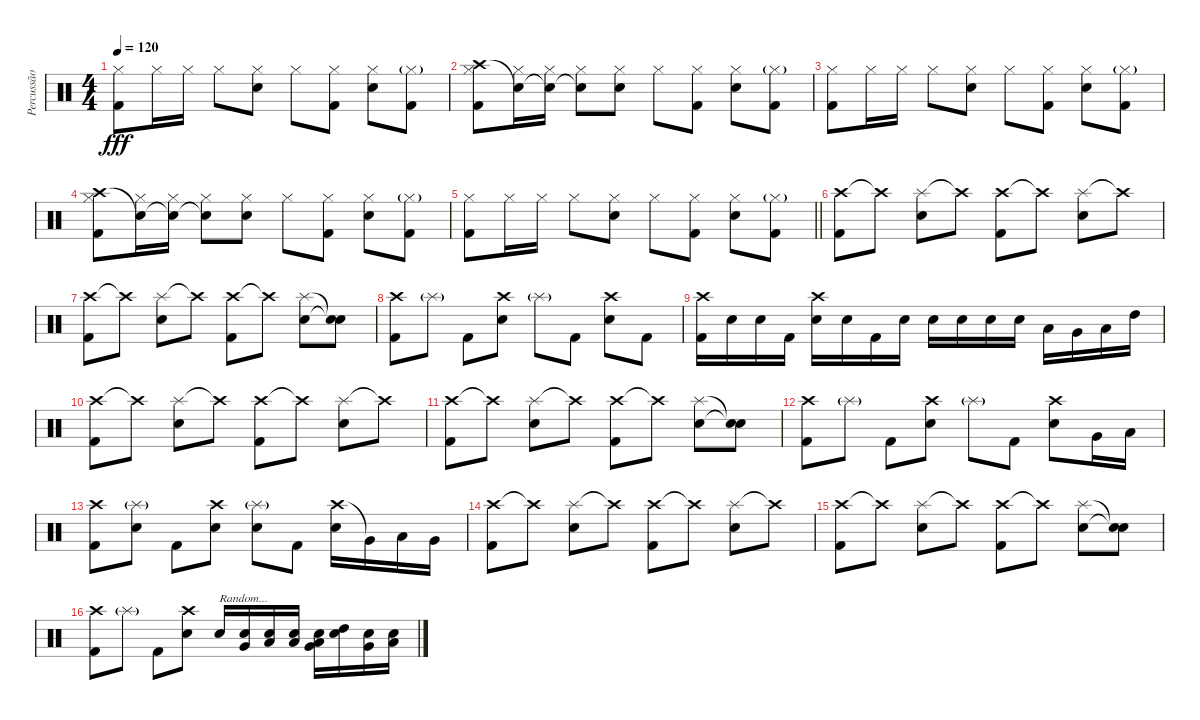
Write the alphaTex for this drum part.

\track ("Percussão" "Percussão") {instrument percussion}
\staff {score}
\articulation defaults
\ts (4 4)
\tempo 120
\clef neutral
\ks c
("Hi-Hat (closed)" "Kick (hit) 2").8{dy fff} "Hi-Hat (closed)".16 "Hi-Hat (closed)".16 "Hi-Hat (closed)".8 ("Hi-Hat (closed)" "Electric Snare (hit)").8 "Hi-Hat (closed)".8 ("Hi-Hat (closed)" "Kick (hit) 2").8 ("Hi-Hat (closed)" "Electric Snare (hit)").8 ("Hi-Hat (closed)"{g} "Kick (hit) 2").8 |
("Hi-Hat (closed)" "Crash high (hit)" "Kick (hit) 2").8 ("Hi-Hat (closed)" "Snare (hit)"{t}).16 ("Hi-Hat (closed)" "Snare (hit)"{t}).16 ("Hi-Hat (closed)" "Snare (hit)"{t}).8 ("Hi-Hat (closed)" "Electric Snare (hit)").8 "Hi-Hat (closed)".8 ("Hi-Hat (closed)" "Kick (hit) 2").8 ("Hi-Hat (closed)" "Electric Snare (hit)").8 ("Hi-Hat (closed)"{g} "Kick (hit) 2").8 |
("Hi-Hat (closed)" "Kick (hit) 2").8 "Hi-Hat (closed)".16 "Hi-Hat (closed)".16 "Hi-Hat (closed)".8 ("Hi-Hat (closed)" "Electric Snare (hit)").8 "Hi-Hat (closed)".8 ("Hi-Hat (closed)" "Kick (hit) 2").8 ("Hi-Hat (closed)" "Electric Snare (hit)").8 ("Hi-Hat (closed)"{g} "Kick (hit) 2").8 |
("Hi-Hat (closed)" "Crash high (hit)" "Kick (hit) 2").8 ("Hi-Hat (closed)" "Snare (hit)"{t}).16 ("Hi-Hat (closed)" "Snare (hit)"{t}).16 ("Hi-Hat (closed)" "Snare (hit)"{t}).8 ("Hi-Hat (closed)" "Electric Snare (hit)").8 "Hi-Hat (closed)".8 ("Hi-Hat (closed)" "Kick (hit) 2").8 ("Hi-Hat (closed)" "Electric Snare (hit)").8 ("Hi-Hat (closed)"{g} "Kick (hit) 2").8 |
\barLineRight lightlight
("Hi-Hat (closed)" "Kick (hit) 2").8 "Hi-Hat (closed)".16 "Hi-Hat (closed)".16 "Hi-Hat (closed)".8 ("Hi-Hat (closed)" "Electric Snare (hit)").8 "Hi-Hat (closed)".8 ("Hi-Hat (closed)" "Kick (hit) 2").8 ("Hi-Hat (closed)" "Electric Snare (hit)").8 ("Hi-Hat (closed)"{g} "Kick (hit) 2").8 |
("Crash high (hit)" "Kick (hit) 2").8 "Crash high (hit)"{t}.8 ("Splash (hit)" "Electric Snare (hit)").8 "Crash high (hit)"{t}.8 ("Crash high (hit)" "Kick (hit) 2").8 "Crash high (hit)"{t}.8 ("Splash (hit)" "Electric Snare (hit)").8 "Crash high (hit)"{t}.8 |
("Crash high (hit)" "Kick (hit) 2").8 "Crash high (hit)"{t}.8 ("Splash (hit)" "Electric Snare (hit)").8 "Crash high (hit)"{t}.8 ("Crash high (hit)" "Kick (hit) 2").8 "Crash high (hit)"{t}.8 ("Splash (hit)" "Electric Snare (hit)").8 ("Snare (hit)"{t} "Snare (hit)"{t}).8 |
("Crash high (hit)" "Kick (hit) 2").8 "Splash (hit)"{g}.8 "Kick (hit) 2".8 ("Crash high (hit)" "Electric Snare (hit)").8 "Splash (hit)"{g}.8 "Kick (hit) 2".8 ("Crash high (hit)" "Electric Snare (hit)").8 "Kick (hit) 2".8 |
("Crash high (hit)" "Kick (hit) 2").16 "Electric Snare (hit)".16 "Electric Snare (hit)".16 "Kick (hit) 2".16 ("Crash high (hit)" "Electric Snare (hit)").16 "Electric Snare (hit)".16 "Kick (hit) 2".16 "Electric Snare (hit)".16 "Electric Snare (hit)".16 "Electric Snare (hit)".16 "Electric Snare (hit)".16 "Electric Snare (hit)".16 "Low Tom (hit)".16 "Very Low Tom (hit)".16 "Low Floor Tom (hit)".16 "High Tom (hit)".16 |
("Crash high (hit)" "Kick (hit) 2").8 "Crash high (hit)"{t}.8 ("Splash (hit)" "Electric Snare (hit)").8 "Crash high (hit)"{t}.8 ("Crash high (hit)" "Kick (hit) 2").8 "Crash high (hit)"{t}.8 ("Splash (hit)" "Electric Snare (hit)").8 "Crash high (hit)"{t}.8 |
("Crash high (hit)" "Kick (hit) 2").8 "Crash high (hit)"{t}.8 ("Splash (hit)" "Electric Snare (hit)").8 "Crash high (hit)"{t}.8 ("Crash high (hit)" "Kick (hit) 2").8 "Crash high (hit)"{t}.8 ("Splash (hit)" "Electric Snare (hit)").8 ("Snare (hit)"{t} "Snare (hit)"{t}).8 |
("Crash high (hit)" "Kick (hit) 2").8 "Splash (hit)"{g}.8 "Kick (hit) 2".8 ("Crash high (hit)" "Electric Snare (hit)").8 "Splash (hit)"{g}.8 "Kick (hit) 2".8 ("Crash high (hit)" "Electric Snare (hit)").8 "Very Low Tom (hit)".16 "Low Floor Tom (hit)".16 |
("Crash high (hit)" "Kick (hit) 2").8 ("Splash (hit)"{g} "Electric Snare (hit)").8 "Kick (hit) 2".8 ("Crash high (hit)" "Electric Snare (hit)").8 ("Splash (hit)"{g} "Electric Snare (hit)").8 "Kick (hit) 2".8 ("Crash high (hit)" "Electric Snare (hit)").16 "Very Low Tom (hit)"{t}.16 "Low Floor Tom (hit)".16 "Very Low Tom (hit)".16 |
("Crash high (hit)" "Kick (hit) 2").8 "Crash high (hit)"{t}.8 ("Splash (hit)" "Electric Snare (hit)").8 "Crash high (hit)"{t}.8 ("Crash high (hit)" "Kick (hit) 2").8 "Crash high (hit)"{t}.8 ("Splash (hit)" "Electric Snare (hit)").8 "Crash high (hit)"{t}.8 |
("Crash high (hit)" "Kick (hit) 2").8 "Crash high (hit)"{t}.8 ("Splash (hit)" "Electric Snare (hit)").8 "Crash high (hit)"{t}.8 ("Crash high (hit)" "Kick (hit) 2").8 "Crash high (hit)"{t}.8 ("Splash (hit)" "Electric Snare (hit)").8 ("Snare (hit)"{t} "Snare (hit)"{t}).8 |
("Crash high (hit)" "Kick (hit) 2").8 "Splash (hit)"{g}.8 "Kick (hit) 2".8 ("Crash high (hit)" "Electric Snare (hit)").8 "Electric Snare (hit)".16{txt "Random..."} ("Very Low Tom (hit)" "Electric Snare (hit)").16 ("Low Floor Tom (hit)" "Electric Snare (hit)").16 ("Low Tom (hit)" "Electric Snare (hit)").16 ("Low Floor Tom (hit)" "Very Low Tom (hit)" "Electric Snare (hit)").16 ("High Tom (hit)" "Electric Snare (hit)").16 ("Very Low Tom (hit)" "Electric Snare (hit)").16 ("Low Floor Tom (hit)" "Electric Snare (hit)").16
